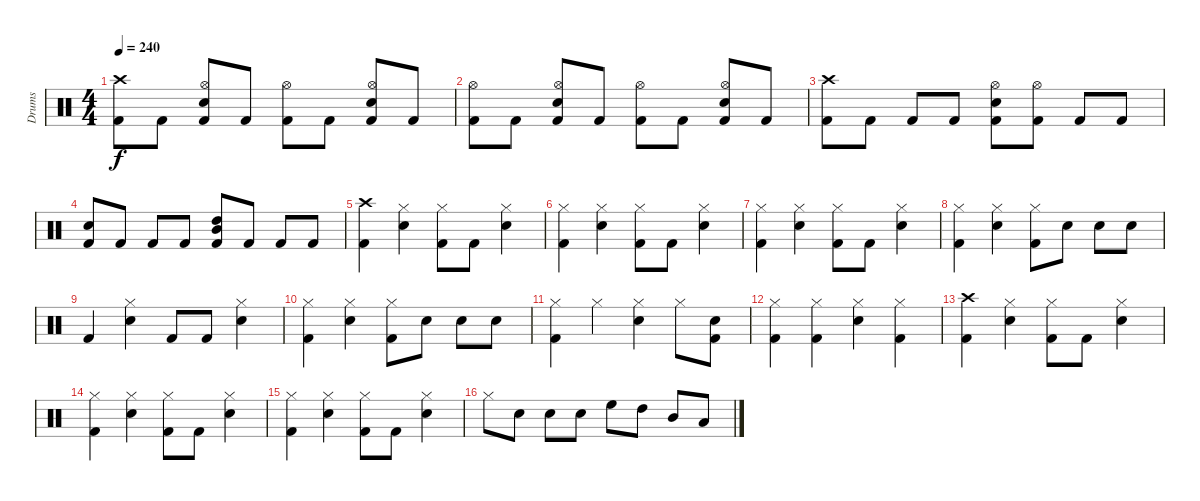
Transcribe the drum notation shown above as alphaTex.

\track ("Drums" "Drums") {instrument percussion}
\staff {score}
\articulation defaults
\ts (4 4)
\tempo 240
\clef neutral
\ks c
("Crash high (hit)" "Kick (hit) 2").8{dy f} "Kick (hit) 2".8 ("Hi-Hat (open)" "Snare (hit) 2" "Kick (hit) 2").8 "Kick (hit) 2".8 ("Hi-Hat (open)" "Kick (hit) 2").8 "Kick (hit) 2".8 ("Hi-Hat (open)" "Snare (hit) 2" "Kick (hit) 2").8 "Kick (hit) 2".8 |
("Hi-Hat (open)" "Kick (hit) 2").8 "Kick (hit) 2".8 ("Hi-Hat (open)" "Snare (hit) 2" "Kick (hit) 2").8 "Kick (hit) 2".8 ("Hi-Hat (open)" "Kick (hit) 2").8 "Kick (hit) 2".8 ("Hi-Hat (open)" "Snare (hit) 2" "Kick (hit) 2").8 "Kick (hit) 2".8 |
("Crash high (hit)" "Kick (hit) 2").8 "Kick (hit) 2".8 "Kick (hit) 2".8 "Kick (hit) 2".8 ("Hi-Hat (open)" "Snare (hit) 2" "Kick (hit) 2").8 ("Hi-Hat (open)" "Kick (hit) 2").8 "Kick (hit) 2".8 "Kick (hit) 2".8 |
("Snare (hit) 2" "Kick (hit) 2").8 "Kick (hit) 2".8 "Kick (hit) 2".8 "Kick (hit) 2".8 ("High Tom (hit)" "Mid Tom (hit)" "Kick (hit) 2").8 "Kick (hit) 2".8 "Kick (hit) 2".8 "Kick (hit) 2".8 |
("Crash high (hit)" "Kick (hit) 2").4 ("Hi-Hat (closed)" "Snare (hit) 2").4 ("Hi-Hat (closed)" "Kick (hit) 2").8 "Kick (hit) 2".8 ("Hi-Hat (closed)" "Snare (hit) 2").4 |
("Hi-Hat (closed)" "Kick (hit) 2").4 ("Hi-Hat (closed)" "Snare (hit) 2").4 ("Hi-Hat (closed)" "Kick (hit) 2").8 "Kick (hit) 2".8 ("Hi-Hat (closed)" "Snare (hit) 2").4 |
("Hi-Hat (closed)" "Kick (hit) 2").4 ("Hi-Hat (closed)" "Snare (hit) 2").4 ("Hi-Hat (closed)" "Kick (hit) 2").8 "Kick (hit) 2".8 ("Hi-Hat (closed)" "Snare (hit) 2").4 |
("Hi-Hat (closed)" "Kick (hit) 2").4 ("Hi-Hat (closed)" "Snare (hit) 2").4 ("Hi-Hat (closed)" "Kick (hit) 2").8 "Snare (hit) 2".8 "Snare (hit) 2".8 "Snare (hit) 2".8 |
"Kick (hit) 2".4 ("Hi-Hat (closed)" "Snare (hit) 2").4 "Kick (hit) 2".8 "Kick (hit) 2".8 ("Hi-Hat (closed)" "Snare (hit) 2").4 |
("Hi-Hat (closed)" "Kick (hit) 2").4 ("Hi-Hat (closed)" "Snare (hit) 2").4 ("Hi-Hat (closed)" "Kick (hit) 2").8 "Snare (hit) 2".8 "Snare (hit) 2".8 "Snare (hit) 2".8 |
("Hi-Hat (closed)" "Kick (hit) 2").4 "Hi-Hat (closed)".4 ("Hi-Hat (closed)" "Snare (hit) 2").4 "Hi-Hat (closed)".8 ("Snare (hit) 2" "Kick (hit) 2").8 |
("Hi-Hat (closed)" "Kick (hit) 2").4 ("Hi-Hat (closed)" "Kick (hit) 2").4 ("Hi-Hat (closed)" "Snare (hit) 2").4 ("Hi-Hat (closed)" "Kick (hit) 2").4 |
("Crash high (hit)" "Kick (hit) 2").4 ("Hi-Hat (closed)" "Snare (hit) 2").4 ("Hi-Hat (closed)" "Kick (hit) 2").8 "Kick (hit) 2".8 ("Hi-Hat (closed)" "Snare (hit) 2").4 |
("Hi-Hat (closed)" "Kick (hit) 2").4 ("Hi-Hat (closed)" "Snare (hit) 2").4 ("Hi-Hat (closed)" "Kick (hit) 2").8 "Kick (hit) 2".8 ("Hi-Hat (closed)" "Snare (hit) 2").4 |
("Hi-Hat (closed)" "Kick (hit) 2").4 ("Hi-Hat (closed)" "Snare (hit) 2").4 ("Hi-Hat (closed)" "Kick (hit) 2").8 "Kick (hit) 2".8 ("Hi-Hat (closed)" "Snare (hit) 2").4 |
"Hi-Hat (closed)".8 "Snare (hit) 2".8 "Snare (hit) 2".8 "Snare (hit) 2".8 "High Floor Tom (hit)".8 "High Tom (hit)".8 "Mid Tom (hit)".8 "Low Tom (hit)".8
